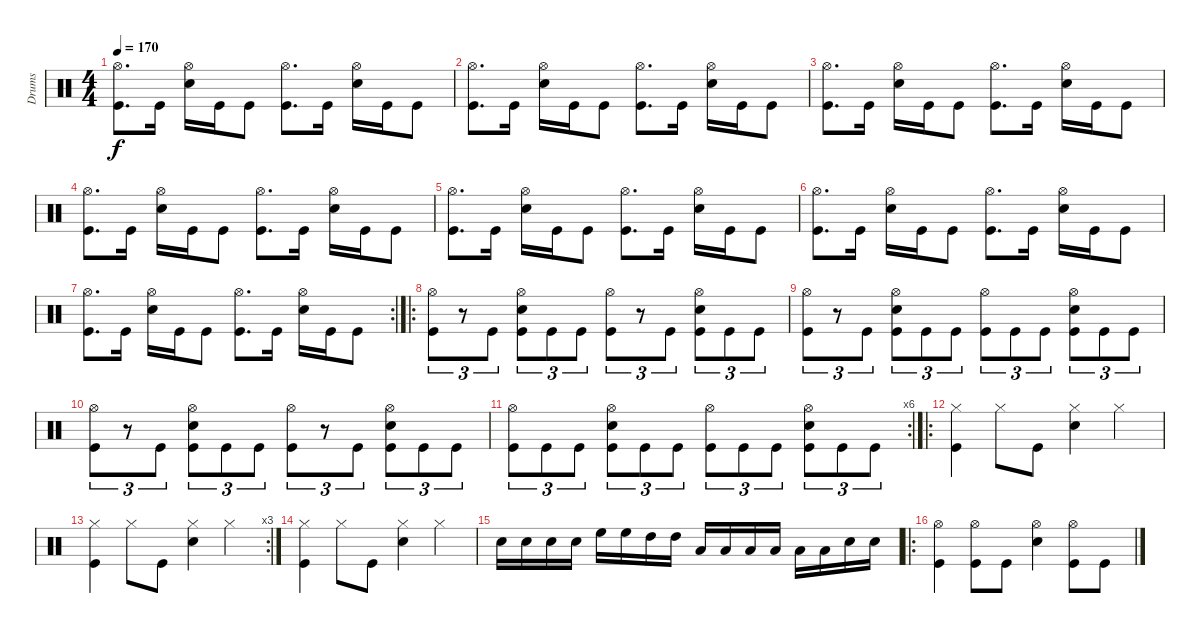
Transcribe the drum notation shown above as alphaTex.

\track ("Drums" "Drums") {instrument percussion}
\staff {score}
\articulation defaults
\ts (4 4)
\tempo 170
\clef neutral
\ks c
("Hi-Hat (open)" "Kick (hit)").8{d dy f} "Kick (hit)".16 ("Hi-Hat (open)" "Snare (hit) 2").16 "Kick (hit)".16 "Kick (hit)".8 ("Hi-Hat (open)" "Kick (hit)").8{d} "Kick (hit)".16 ("Hi-Hat (open)" "Snare (hit) 2").16 "Kick (hit)".16 "Kick (hit)".8 |
("Hi-Hat (open)" "Kick (hit)").8{d} "Kick (hit)".16 ("Hi-Hat (open)" "Snare (hit) 2").16 "Kick (hit)".16 "Kick (hit)".8 ("Hi-Hat (open)" "Kick (hit)").8{d} "Kick (hit)".16 ("Hi-Hat (open)" "Snare (hit) 2").16 "Kick (hit)".16 "Kick (hit)".8 |
("Hi-Hat (open)" "Kick (hit)").8{d} "Kick (hit)".16 ("Hi-Hat (open)" "Snare (hit) 2").16 "Kick (hit)".16 "Kick (hit)".8 ("Hi-Hat (open)" "Kick (hit)").8{d} "Kick (hit)".16 ("Hi-Hat (open)" "Snare (hit) 2").16 "Kick (hit)".16 "Kick (hit)".8 |
("Hi-Hat (open)" "Kick (hit)").8{d} "Kick (hit)".16 ("Hi-Hat (open)" "Snare (hit) 2").16 "Kick (hit)".16 "Kick (hit)".8 ("Hi-Hat (open)" "Kick (hit)").8{d} "Kick (hit)".16 ("Hi-Hat (open)" "Snare (hit) 2").16 "Kick (hit)".16 "Kick (hit)".8 |
("Hi-Hat (open)" "Kick (hit)").8{d} "Kick (hit)".16 ("Hi-Hat (open)" "Snare (hit) 2").16 "Kick (hit)".16 "Kick (hit)".8 ("Hi-Hat (open)" "Kick (hit)").8{d} "Kick (hit)".16 ("Hi-Hat (open)" "Snare (hit) 2").16 "Kick (hit)".16 "Kick (hit)".8 |
("Hi-Hat (open)" "Kick (hit)").8{d} "Kick (hit)".16 ("Hi-Hat (open)" "Snare (hit) 2").16 "Kick (hit)".16 "Kick (hit)".8 ("Hi-Hat (open)" "Kick (hit)").8{d} "Kick (hit)".16 ("Hi-Hat (open)" "Snare (hit) 2").16 "Kick (hit)".16 "Kick (hit)".8 |
\rc 2
("Hi-Hat (open)" "Kick (hit)").8{d} "Kick (hit)".16 ("Hi-Hat (open)" "Snare (hit) 2").16 "Kick (hit)".16 "Kick (hit)".8 ("Hi-Hat (open)" "Kick (hit)").8{d} "Kick (hit)".16 ("Hi-Hat (open)" "Snare (hit) 2").16 "Kick (hit)".16 "Kick (hit)".8 |
\ro
("Hi-Hat (open)" "Kick (hit)").8{tu (3 2)} r.8{tu (3 2)} "Kick (hit)".8{tu (3 2)} ("Hi-Hat (open)" "Snare (hit) 2" "Kick (hit)").8{tu (3 2)} "Kick (hit)".8{tu (3 2)} "Kick (hit)".8{tu (3 2)} ("Hi-Hat (open)" "Kick (hit)").8{tu (3 2)} r.8{tu (3 2)} "Kick (hit)".8{tu (3 2)} ("Hi-Hat (open)" "Snare (hit) 2" "Kick (hit)").8{tu (3 2)} "Kick (hit)".8{tu (3 2)} "Kick (hit)".8{tu (3 2)} |
("Hi-Hat (open)" "Kick (hit)").8{tu (3 2)} r.8{tu (3 2)} "Kick (hit)".8{tu (3 2)} ("Hi-Hat (open)" "Snare (hit) 2" "Kick (hit)").8{tu (3 2)} "Kick (hit)".8{tu (3 2)} "Kick (hit)".8{tu (3 2)} ("Hi-Hat (open)" "Kick (hit)").8{tu (3 2)} "Kick (hit)".8{tu (3 2)} "Kick (hit)".8{tu (3 2)} ("Hi-Hat (open)" "Snare (hit) 2" "Kick (hit)").8{tu (3 2)} "Kick (hit)".8{tu (3 2)} "Kick (hit)".8{tu (3 2)} |
("Hi-Hat (open)" "Kick (hit)").8{tu (3 2)} r.8{tu (3 2)} "Kick (hit)".8{tu (3 2)} ("Hi-Hat (open)" "Snare (hit) 2" "Kick (hit)").8{tu (3 2)} "Kick (hit)".8{tu (3 2)} "Kick (hit)".8{tu (3 2)} ("Hi-Hat (open)" "Kick (hit)").8{tu (3 2)} r.8{tu (3 2)} "Kick (hit)".8{tu (3 2)} ("Hi-Hat (open)" "Snare (hit) 2" "Kick (hit)").8{tu (3 2)} "Kick (hit)".8{tu (3 2)} "Kick (hit)".8{tu (3 2)} |
\rc 6
("Hi-Hat (open)" "Kick (hit)").8{tu (3 2)} "Kick (hit)".8{tu (3 2)} "Kick (hit)".8{tu (3 2)} ("Hi-Hat (open)" "Snare (hit) 2" "Kick (hit)").8{tu (3 2)} "Kick (hit)".8{tu (3 2)} "Kick (hit)".8{tu (3 2)} ("Hi-Hat (open)" "Kick (hit)").8{tu (3 2)} "Kick (hit)".8{tu (3 2)} "Kick (hit)".8{tu (3 2)} ("Hi-Hat (open)" "Snare (hit) 2" "Kick (hit)").8{tu (3 2)} "Kick (hit)".8{tu (3 2)} "Kick (hit)".8{tu (3 2)} |
\ro
("Hi-Hat (closed)" "Kick (hit)").4 "Hi-Hat (closed)".8 "Kick (hit)".8 ("Hi-Hat (closed)" "Snare (hit) 2").4 "Hi-Hat (closed)".4 |
\rc 3
("Hi-Hat (closed)" "Kick (hit)").4 "Hi-Hat (closed)".8 "Kick (hit)".8 ("Hi-Hat (closed)" "Snare (hit) 2").4 "Hi-Hat (closed)".4 |
("Hi-Hat (closed)" "Kick (hit)").4 "Hi-Hat (closed)".8 "Kick (hit)".8 ("Hi-Hat (closed)" "Snare (hit) 2").4 "Hi-Hat (closed)".4 |
"Snare (hit) 2".16 "Snare (hit) 2".16 "Snare (hit) 2".16 "Snare (hit) 2".16 "High Floor Tom (hit)".16 "High Floor Tom (hit)".16 "High Tom (hit)".16 "High Tom (hit)".16 "Low Tom (hit)".16 "Low Tom (hit)".16 "Low Floor Tom (hit)".16 "Low Floor Tom (hit)".16 "Low Tom (hit)".16 "Low Tom (hit)".16 "Snare (hit) 2".16 "Snare (hit) 2".16 |
\ro
("Hi-Hat (open)" "Kick (hit)").4 ("Hi-Hat (open)" "Kick (hit)").8 "Kick (hit)".8 ("Hi-Hat (open)" "Snare (hit) 2").4 ("Hi-Hat (open)" "Kick (hit)").8 "Kick (hit)".8
